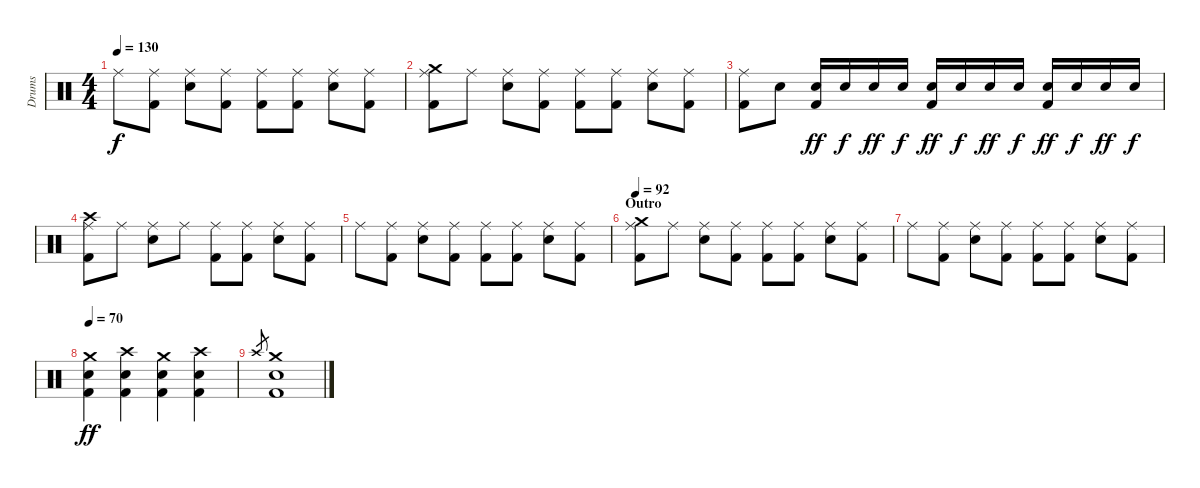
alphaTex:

\track ("Drums" "Drums") {instrument percussion}
\staff {score}
\articulation defaults
\ts (4 4)
\tempo 130
\clef neutral
\ks c "Ride (middle)".8{dy f}
("Ride (middle)" "Kick (hit) 2").8 ("Ride (middle)" "Electric Snare (hit)").8 ("Ride (middle)" "Kick (hit) 2").8 ("Ride (middle)" "Kick (hit) 2").8 ("Ride (middle)" "Kick (hit) 2").8 ("Ride (middle)" "Electric Snare (hit)").8 ("Ride (middle)" "Kick (hit) 2").8 |
("Ride (middle)" "Crash medium (hit)" "Kick (hit) 2").8 "Ride (middle)".8 ("Ride (middle)" "Electric Snare (hit)").8 ("Ride (middle)" "Kick (hit) 2").8 ("Ride (middle)" "Kick (hit) 2").8 ("Ride (middle)" "Kick (hit) 2").8 ("Ride (middle)" "Electric Snare (hit)").8 ("Ride (middle)" "Kick (hit) 2").8 |
("Ride (middle)" "Kick (hit) 2").8 "Electric Snare (hit)".8 ("Electric Snare (hit)" "Kick (hit) 2").16{dy ff} "Electric Snare (hit)".16{dy f} "Electric Snare (hit)".16{dy ff} "Electric Snare (hit)".16{dy f} ("Electric Snare (hit)" "Kick (hit) 2").16{dy ff} "Electric Snare (hit)".16{dy f} "Electric Snare (hit)".16{dy ff} "Electric Snare (hit)".16{dy f} ("Electric Snare (hit)" "Kick (hit) 2").16{dy ff} "Electric Snare (hit)".16{dy f} "Electric Snare (hit)".16{dy ff} "Electric Snare (hit)".16{dy f} |
("Ride (middle)" "Crash high (hit)" "Kick (hit) 2").8 "Ride (middle)".8 ("Ride (middle)" "Electric Snare (hit)").8 "Ride (middle)".8 ("Ride (middle)" "Kick (hit) 2").8 ("Ride (middle)" "Kick (hit) 2").8 ("Ride (middle)" "Electric Snare (hit)").8 ("Ride (middle)" "Kick (hit) 2").8 |
"Ride (middle)".8 ("Ride (middle)" "Kick (hit) 2").8 ("Ride (middle)" "Electric Snare (hit)").8 ("Ride (middle)" "Kick (hit) 2").8 ("Ride (middle)" "Kick (hit) 2").8 ("Ride (middle)" "Kick (hit) 2").8 ("Ride (middle)" "Electric Snare (hit)").8 ("Ride (middle)" "Kick (hit) 2").8 |
\section ("" "Outro")
\tempo 92
("Ride (middle)" "Crash medium (hit)" "Kick (hit) 2").8 "Ride (middle)".8 ("Ride (middle)" "Electric Snare (hit)").8 ("Ride (middle)" "Kick (hit) 2").8 ("Ride (middle)" "Kick (hit) 2").8 ("Ride (middle)" "Kick (hit) 2").8 ("Ride (middle)" "Electric Snare (hit)").8 ("Ride (middle)" "Kick (hit) 2").8 |
"Ride (middle)".8 ("Ride (middle)" "Kick (hit) 2").8 ("Ride (middle)" "Electric Snare (hit)").8 ("Ride (middle)" "Kick (hit) 2").8 ("Ride (middle)" "Kick (hit) 2").8 ("Ride (middle)" "Kick (hit) 2").8 ("Ride (middle)" "Electric Snare (hit)").8 ("Ride (middle)" "Kick (hit) 2").8 |
\tempo 70
("Crash medium (hit)" "Electric Snare (hit)" "Kick (hit) 2").4{dy ff} ("Crash high (hit)" "Electric Snare (hit)" "Kick (hit) 2").4 ("Crash medium (hit)" "Electric Snare (hit)" "Kick (hit) 2").4 ("Crash high (hit)" "Electric Snare (hit)" "Kick (hit) 2").4 |
"Crash high (hit)".8{gr} ("Crash medium (hit)" "Electric Snare (hit)" "Kick (hit) 2").1
